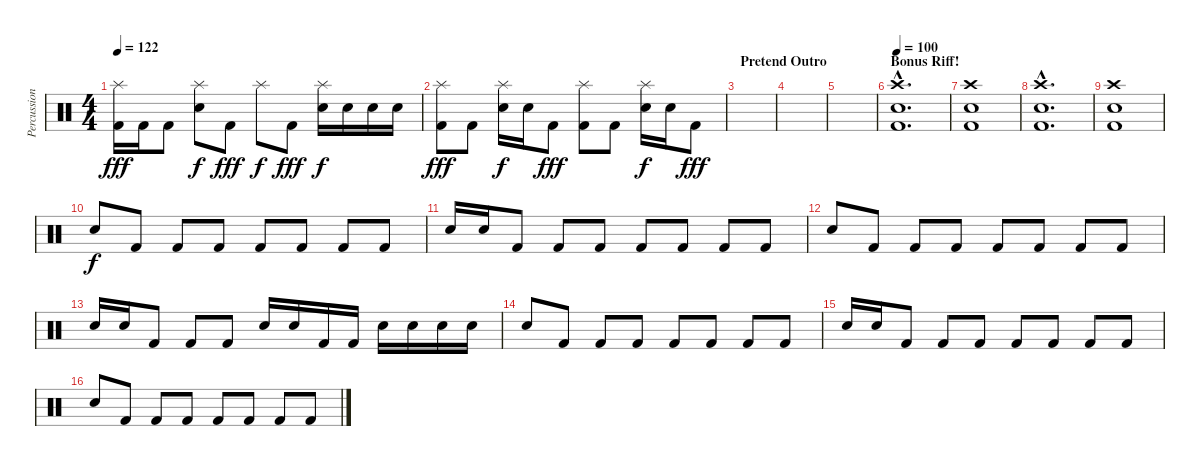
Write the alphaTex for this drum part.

\track ("Percussion" "Percussion") {instrument percussion}
\staff {score}
\articulation defaults
\ts (4 4)
\tempo 122
\clef neutral
\ks c
("Splash (hit)" "Kick (hit) 2").16{dy fff} "Kick (hit) 2".16 "Kick (hit) 2".8 ("Splash (hit)" "Snare (hit) 2").8{dy f} "Kick (hit) 2".8{dy fff} "Splash (hit)".8{dy f} "Kick (hit) 2".8{dy fff} ("Splash (hit)" "Snare (hit) 2").16{dy f} "Snare (hit) 2".16 "Snare (hit) 2".16 "Snare (hit) 2".16 |
("Splash (hit)" "Kick (hit) 2").8{dy fff} "Kick (hit) 2".8 ("Splash (hit)" "Snare (hit) 2").16{dy f} "Snare (hit) 2".16 "Kick (hit) 2".8{dy fff} ("Splash (hit)" "Kick (hit) 2").8 "Kick (hit) 2".8 ("Splash (hit)" "Snare (hit) 2").16{dy f} "Snare (hit) 2".16 "Kick (hit) 2".8{dy fff} |
\section ("" "Pretend Outro")
|
|
|
\section ("" "Bonus Riff!")
\tempo 100
("Crash high (hit)"{hac} "Snare (hit) 2"{hac} "Kick (hit) 2"{hac}).1{d} |
("Crash high (hit)" "Snare (hit) 2" "Kick (hit) 2").1 |
("Crash high (hit)"{hac} "Snare (hit) 2"{hac} "Kick (hit) 2"{hac}).1{d} |
("Crash high (hit)" "Snare (hit) 2" "Kick (hit) 2").1 |
"Snare (hit) 2".8{dy f} "Kick (hit) 2".8 "Kick (hit) 2".8 "Kick (hit) 2".8 "Kick (hit) 2".8 "Kick (hit) 2".8 "Kick (hit) 2".8 "Kick (hit) 2".8 |
"Snare (hit) 2".16 "Snare (hit) 2".16 "Kick (hit) 2".8 "Kick (hit) 2".8 "Kick (hit) 2".8 "Kick (hit) 2".8 "Kick (hit) 2".8 "Kick (hit) 2".8 "Kick (hit) 2".8 |
"Snare (hit) 2".8 "Kick (hit) 2".8 "Kick (hit) 2".8 "Kick (hit) 2".8 "Kick (hit) 2".8 "Kick (hit) 2".8 "Kick (hit) 2".8 "Kick (hit) 2".8 |
"Snare (hit) 2".16 "Snare (hit) 2".16 "Kick (hit) 2".8 "Kick (hit) 2".8 "Kick (hit) 2".8 "Snare (hit) 2".16 "Snare (hit) 2".16 "Kick (hit) 2".16 "Kick (hit) 2".16 "Snare (hit) 2".16 "Snare (hit) 2".16 "Snare (hit) 2".16 "Snare (hit) 2".16 |
"Snare (hit) 2".8 "Kick (hit) 2".8 "Kick (hit) 2".8 "Kick (hit) 2".8 "Kick (hit) 2".8 "Kick (hit) 2".8 "Kick (hit) 2".8 "Kick (hit) 2".8 |
"Snare (hit) 2".16 "Snare (hit) 2".16 "Kick (hit) 2".8 "Kick (hit) 2".8 "Kick (hit) 2".8 "Kick (hit) 2".8 "Kick (hit) 2".8 "Kick (hit) 2".8 "Kick (hit) 2".8 |
"Snare (hit) 2".8 "Kick (hit) 2".8 "Kick (hit) 2".8 "Kick (hit) 2".8 "Kick (hit) 2".8 "Kick (hit) 2".8 "Kick (hit) 2".8 "Kick (hit) 2".8
